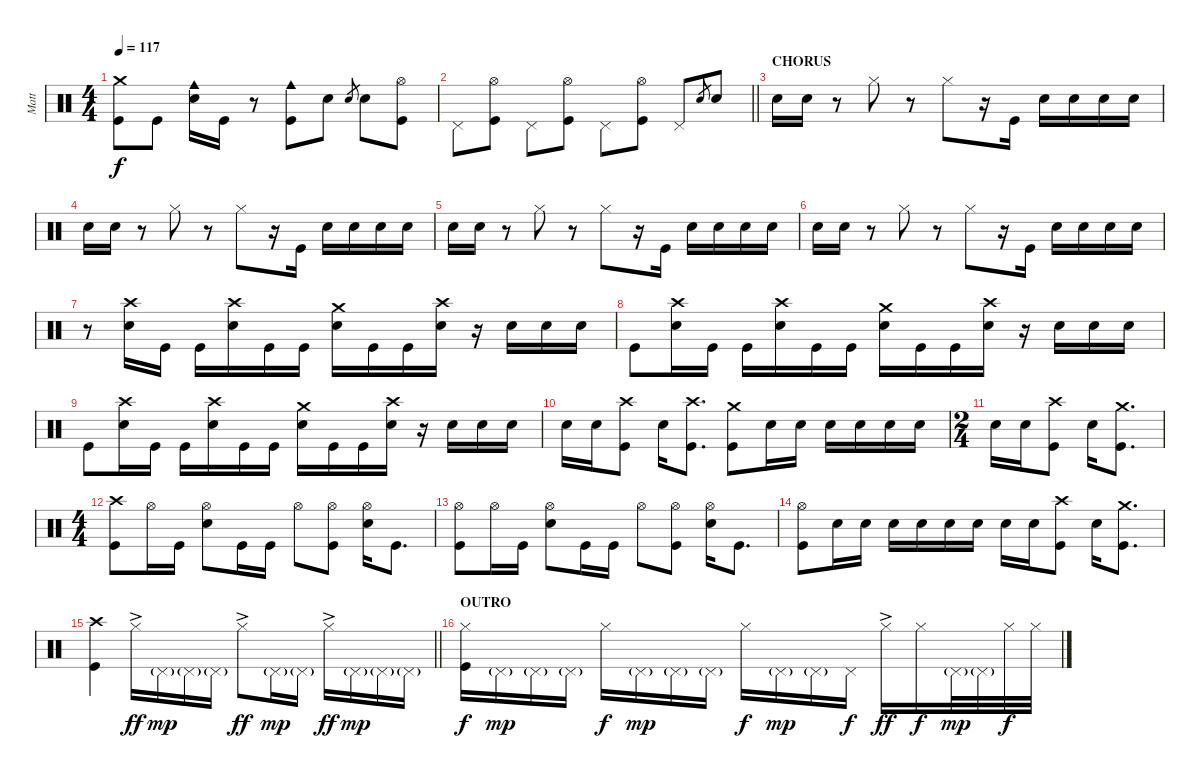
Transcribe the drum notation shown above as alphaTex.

\track ("Matt" "Matt") {instrument percussion}
\staff {score}
\articulation defaults
\ts (4 4)
\tempo 117
\clef neutral
\ks c
("Crash medium (hit)" "Kick (hit)").8{dy f} "Kick (hit)".8 ("Snare (hit) 2" "Cowbell medium (hit)").16 "Kick (hit)".16 r.8 ("Kick (hit)" "Cowbell medium (hit)").8 "Snare (hit) 2".8 "Snare (hit) 2".8{gr} "Snare (hit) 2".8 ("Kick (hit)" "Hi-Hat (open)").8 |
\barLineRight lightlight "Pedal Hi-Hat (hit)".8
("Kick (hit)" "Hi-Hat (open)").8 "Pedal Hi-Hat (hit)".8 ("Kick (hit)" "Hi-Hat (open)").8 "Pedal Hi-Hat (hit)".8 ("Kick (hit)" "Hi-Hat (open)").8 "Pedal Hi-Hat (hit)".8 "Snare (hit) 2".8{gr} "Snare (hit) 2".8 |
\section ("" "CHORUS")
"Snare (hit) 2".16 "Snare (hit) 2".16 r.8 "Hi-Hat (closed)".8 r.8 "Hi-Hat (closed)".8 r.16 "Kick (hit)".16 "Snare (hit) 2".16 "Snare (hit) 2".16 "Snare (hit) 2".16 "Snare (hit) 2".16 |
"Snare (hit) 2".16 "Snare (hit) 2".16 r.8 "Hi-Hat (closed)".8 r.8 "Hi-Hat (closed)".8 r.16 "Kick (hit)".16 "Snare (hit) 2".16 "Snare (hit) 2".16 "Snare (hit) 2".16 "Snare (hit) 2".16 |
"Snare (hit) 2".16 "Snare (hit) 2".16 r.8 "Hi-Hat (closed)".8 r.8 "Hi-Hat (closed)".8 r.16 "Kick (hit)".16 "Snare (hit) 2".16 "Snare (hit) 2".16 "Snare (hit) 2".16 "Snare (hit) 2".16 |
"Snare (hit) 2".16 "Snare (hit) 2".16 r.8 "Hi-Hat (closed)".8 r.8 "Hi-Hat (closed)".8 r.16 "Kick (hit)".16 "Snare (hit) 2".16 "Snare (hit) 2".16 "Snare (hit) 2".16 "Snare (hit) 2".16 |
r.8 ("Crash high (hit)" "Snare (hit) 2").16 "Kick (hit)".16 "Kick (hit)".16 ("Snare (hit) 2" "Crash high (hit)").16 "Kick (hit)".16 "Kick (hit)".16 ("Crash medium (hit)" "Snare (hit) 2").16 "Kick (hit)".16 "Kick (hit)".16 ("Snare (hit) 2" "Crash high (hit)").16 r.16 "Snare (hit) 2".16 "Snare (hit) 2".16 "Snare (hit) 2".16 |
"Kick (hit)".8 ("Crash high (hit)" "Snare (hit) 2").16 "Kick (hit)".16 "Kick (hit)".16 ("Snare (hit) 2" "Crash high (hit)").16 "Kick (hit)".16 "Kick (hit)".16 ("Crash medium (hit)" "Snare (hit) 2").16 "Kick (hit)".16 "Kick (hit)".16 ("Snare (hit) 2" "Crash high (hit)").16 r.16 "Snare (hit) 2".16 "Snare (hit) 2".16 "Snare (hit) 2".16 |
"Kick (hit)".8 ("Crash high (hit)" "Snare (hit) 2").16 "Kick (hit)".16 "Kick (hit)".16 ("Snare (hit) 2" "Crash high (hit)").16 "Kick (hit)".16 "Kick (hit)".16 ("Crash medium (hit)" "Snare (hit) 2").16 "Kick (hit)".16 "Kick (hit)".16 ("Snare (hit) 2" "Crash high (hit)").16 r.16 "Snare (hit) 2".16 "Snare (hit) 2".16 "Snare (hit) 2".16 |
"Snare (hit) 2".16 "Snare (hit) 2".16 ("Crash high (hit)" "Kick (hit)").8 "Snare (hit) 2".16 ("Kick (hit)" "Crash high (hit)").8{d} ("Crash medium (hit)" "Kick (hit)").8 "Snare (hit) 2".16 "Snare (hit) 2".16 "Snare (hit) 2".16 "Snare (hit) 2".16 "Snare (hit) 2".16 "Snare (hit) 2".16 |
\ts (2 4)
"Snare (hit) 2".16 "Snare (hit) 2".16 ("Crash high (hit)" "Kick (hit)").8 "Snare (hit) 2".16 ("Kick (hit)" "Crash medium (hit)").8{d} |
\ts (4 4)
("Crash high (hit)" "Kick (hit)").8 "Hi-Hat (open)".16 "Kick (hit)".16 ("Snare (hit) 2" "Hi-Hat (open)").8 "Kick (hit)".16 "Kick (hit)".16 "Hi-Hat (open)".8 ("Kick (hit)" "Hi-Hat (open)").8 ("Snare (hit) 2" "Hi-Hat (open)").16 "Kick (hit)".8{d} |
("Kick (hit)" "Hi-Hat (open)").8 "Hi-Hat (open)".16 "Kick (hit)".16 ("Snare (hit) 2" "Hi-Hat (open)").8 "Kick (hit)".16 "Kick (hit)".16 "Hi-Hat (open)".8 ("Kick (hit)" "Hi-Hat (open)").8 ("Snare (hit) 2" "Hi-Hat (open)").16 "Kick (hit)".8{d} |
("Kick (hit)" "Hi-Hat (open)").8 "Snare (hit) 2".16 "Snare (hit) 2".16 "Snare (hit) 2".16 "Snare (hit) 2".16 "Snare (hit) 2".16 "Snare (hit) 2".16 "Snare (hit) 2".16 "Snare (hit) 2".16 ("Crash high (hit)" "Kick (hit)").8 "Snare (hit) 2".16 ("Kick (hit)" "Crash medium (hit)").8{d} |
\barLineRight lightlight
("Crash high (hit)" "Kick (hit)").4 "Hi-Hat (closed)"{ac}.16{dy ff} "Pedal Hi-Hat (hit)"{g}.16{dy mp} "Pedal Hi-Hat (hit)"{g}.16 "Pedal Hi-Hat (hit)"{g}.16 "Hi-Hat (closed)"{ac}.8{dy ff} "Pedal Hi-Hat (hit)"{g}.16{dy mp} "Pedal Hi-Hat (hit)"{g}.16 "Hi-Hat (closed)"{ac}.16{dy ff} "Pedal Hi-Hat (hit)"{g}.16{dy mp} "Pedal Hi-Hat (hit)"{g}.16 "Pedal Hi-Hat (hit)"{g}.16 |
\section ("" "OUTRO")
("Kick (hit)" "Hi-Hat (closed)").16{dy f} "Pedal Hi-Hat (hit)"{g}.16{dy mp} "Pedal Hi-Hat (hit)"{g}.16 "Pedal Hi-Hat (hit)"{g}.16 "Hi-Hat (closed)".16{dy f} "Pedal Hi-Hat (hit)"{g}.16{dy mp} "Pedal Hi-Hat (hit)"{g}.16 "Pedal Hi-Hat (hit)"{g}.16 "Hi-Hat (closed)".16{dy f} "Pedal Hi-Hat (hit)"{g}.16{dy mp} "Pedal Hi-Hat (hit)"{g}.16 "Pedal Hi-Hat (hit)".16{dy f} "Hi-Hat (closed)"{ac}.16{dy ff} "Hi-Hat (closed)".16{dy f} "Pedal Hi-Hat (hit)"{g}.32{dy mp} "Pedal Hi-Hat (hit)"{g}.32 "Hi-Hat (closed)".32{dy f} "Hi-Hat (closed)".32
